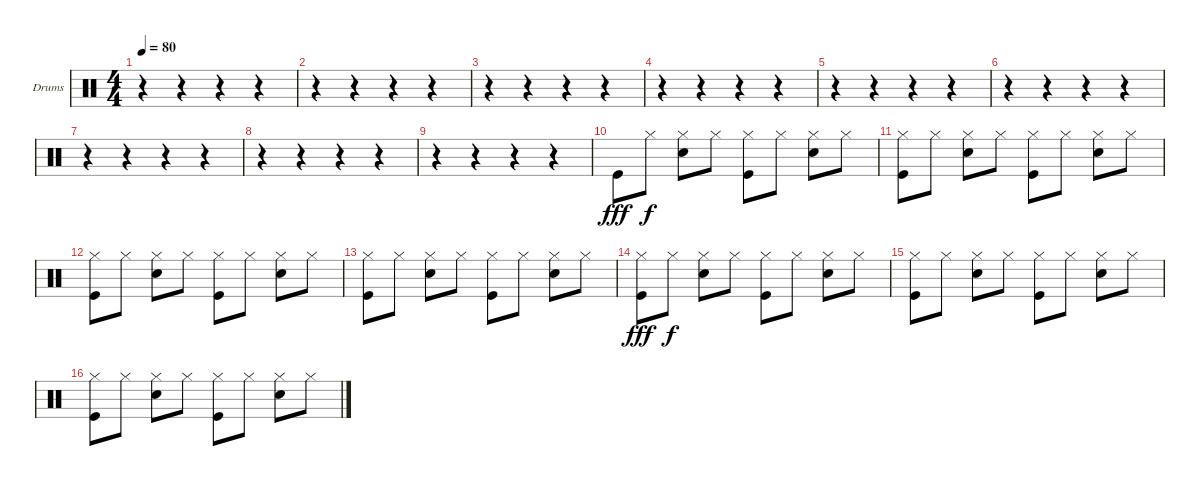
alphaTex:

\bracketExtendMode groupsimilarinstruments
\firstSystemTrackNameOrientation horizontal
\otherSystemsTrackNameOrientation horizontal
\chordDiagramsInScore
\track ("Drumkit" "Drums") {instrument percussion}
\staff {score}
\articulation defaults
\ts (4 4)
\tempo 80
\clef neutral
\ks c
r.4{dy f} r.4 r.4 r.4 |
r.4 r.4 r.4 r.4 |
r.4 r.4 r.4 r.4 |
r.4 r.4 r.4 r.4 |
r.4 r.4 r.4 r.4 |
r.4 r.4 r.4 r.4 |
r.4 r.4 r.4 r.4 |
r.4 r.4 r.4 r.4 |
r.4 r.4 r.4 r.4 |
"Kick (hit)".8{dy fff} "Hi-Hat (closed)".8{dy f} ("Hi-Hat (closed)" "Snare (hit) 2").8 "Hi-Hat (closed)".8 ("Hi-Hat (closed)" "Kick (hit)").8 "Hi-Hat (closed)".8 ("Hi-Hat (closed)" "Snare (hit) 2").8 "Hi-Hat (closed)".8 |
("Hi-Hat (closed)" "Kick (hit)").8 "Hi-Hat (closed)".8 ("Hi-Hat (closed)" "Snare (hit) 2").8 "Hi-Hat (closed)".8 ("Hi-Hat (closed)" "Kick (hit)").8 "Hi-Hat (closed)".8 ("Hi-Hat (closed)" "Snare (hit) 2").8 "Hi-Hat (closed)".8 |
("Hi-Hat (closed)" "Kick (hit)").8 "Hi-Hat (closed)".8 ("Hi-Hat (closed)" "Snare (hit) 2").8 "Hi-Hat (closed)".8 ("Hi-Hat (closed)" "Kick (hit)").8 "Hi-Hat (closed)".8 ("Hi-Hat (closed)" "Snare (hit) 2").8 "Hi-Hat (closed)".8 |
("Hi-Hat (closed)" "Kick (hit)").8 "Hi-Hat (closed)".8 ("Hi-Hat (closed)" "Snare (hit) 2").8 "Hi-Hat (closed)".8 ("Hi-Hat (closed)" "Kick (hit)").8 "Hi-Hat (closed)".8 ("Hi-Hat (closed)" "Snare (hit) 2").8 "Hi-Hat (closed)".8 |
("Hi-Hat (closed)" "Kick (hit)").8{dy fff} "Hi-Hat (closed)".8{dy f} ("Hi-Hat (closed)" "Snare (hit) 2").8 "Hi-Hat (closed)".8 ("Hi-Hat (closed)" "Kick (hit)").8 "Hi-Hat (closed)".8 ("Hi-Hat (closed)" "Snare (hit) 2").8 "Hi-Hat (closed)".8 |
("Hi-Hat (closed)" "Kick (hit)").8 "Hi-Hat (closed)".8 ("Hi-Hat (closed)" "Snare (hit) 2").8 "Hi-Hat (closed)".8 ("Hi-Hat (closed)" "Kick (hit)").8 "Hi-Hat (closed)".8 ("Hi-Hat (closed)" "Snare (hit) 2").8 "Hi-Hat (closed)".8 |
("Hi-Hat (closed)" "Kick (hit)").8 "Hi-Hat (closed)".8 ("Hi-Hat (closed)" "Snare (hit) 2").8 "Hi-Hat (closed)".8 ("Hi-Hat (closed)" "Kick (hit)").8 "Hi-Hat (closed)".8 ("Hi-Hat (closed)" "Snare (hit) 2").8 "Hi-Hat (closed)".8
